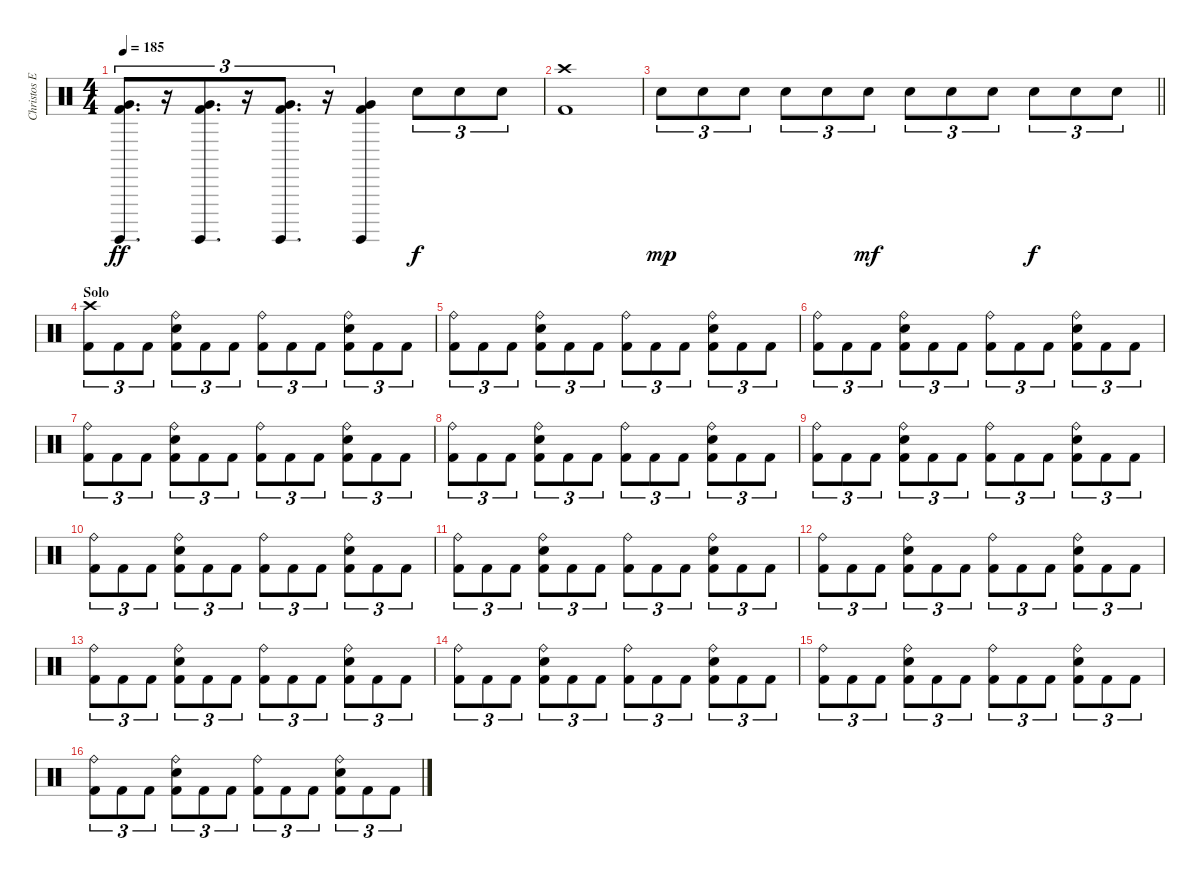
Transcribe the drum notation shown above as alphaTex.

\track ("Christos Ephitimiadis (drums)" "Christos E") {instrument percussion}
\staff {score}
\articulation defaults
\ts (4 4)
\tempo 185
\clef neutral
\ks c
("Surdo (hit)" "Very Low Tom (hit)" "Kick (hit) 2").8{d tu (3 2) dy ff} r.16{tu (3 2)} ("Surdo (hit)" "Very Low Tom (hit)" "Kick (hit) 2").8{d tu (3 2)} r.16{tu (3 2)} ("Surdo (hit)" "Very Low Tom (hit)" "Kick (hit) 2").8{d tu (3 2)} r.16{tu (3 2)} ("Surdo (hit)" "Very Low Tom (hit)" "Kick (hit) 2").4 "Snare (hit) 2".8{tu (3 2) dy f} "Snare (hit) 2".8{tu (3 2)} "Snare (hit) 2".8{tu (3 2)} |
("Crash high (hit)" "Kick (hit) 2").1 |
\barLineRight lightlight "Snare (hit) 2".8{tu (3 2) dy mp} "Snare (hit) 2".8{tu (3 2)} "Snare (hit) 2".8{tu (3 2)} "Snare (hit) 2".8{tu (3 2)} "Snare (hit) 2".8{tu (3 2)} "Snare (hit) 2".8{tu (3 2) dy mf} "Snare (hit) 2".8{tu (3 2)} "Snare (hit) 2".8{tu (3 2)} "Snare (hit) 2".8{tu (3 2)} "Snare (hit) 2".8{tu (3 2) dy f} "Snare (hit) 2".8{tu (3 2)} "Snare (hit) 2".8{tu (3 2)}
|
\section ("" "Solo")
("Crash high (hit)" "Kick (hit) 2").8{tu (3 2)} "Kick (hit) 2".8{tu (3 2)} "Kick (hit) 2".8{tu (3 2)} ("Ride (bell)" "Snare (hit) 2" "Kick (hit) 2").8{tu (3 2)} "Kick (hit) 2".8{tu (3 2)} "Kick (hit) 2".8{tu (3 2)} ("Ride (bell)" "Kick (hit) 2").8{tu (3 2)} "Kick (hit) 2".8{tu (3 2)} "Kick (hit) 2".8{tu (3 2)} ("Ride (bell)" "Snare (hit) 2" "Kick (hit) 2").8{tu (3 2)} "Kick (hit) 2".8{tu (3 2)} "Kick (hit) 2".8{tu (3 2)} |
("Ride (bell)" "Kick (hit) 2").8{tu (3 2)} "Kick (hit) 2".8{tu (3 2)} "Kick (hit) 2".8{tu (3 2)} ("Ride (bell)" "Snare (hit) 2" "Kick (hit) 2").8{tu (3 2)} "Kick (hit) 2".8{tu (3 2)} "Kick (hit) 2".8{tu (3 2)} ("Ride (bell)" "Kick (hit) 2").8{tu (3 2)} "Kick (hit) 2".8{tu (3 2)} "Kick (hit) 2".8{tu (3 2)} ("Ride (bell)" "Snare (hit) 2" "Kick (hit) 2").8{tu (3 2)} "Kick (hit) 2".8{tu (3 2)} "Kick (hit) 2".8{tu (3 2)} |
("Ride (bell)" "Kick (hit) 2").8{tu (3 2)} "Kick (hit) 2".8{tu (3 2)} "Kick (hit) 2".8{tu (3 2)} ("Ride (bell)" "Snare (hit) 2" "Kick (hit) 2").8{tu (3 2)} "Kick (hit) 2".8{tu (3 2)} "Kick (hit) 2".8{tu (3 2)} ("Ride (bell)" "Kick (hit) 2").8{tu (3 2)} "Kick (hit) 2".8{tu (3 2)} "Kick (hit) 2".8{tu (3 2)} ("Ride (bell)" "Snare (hit) 2" "Kick (hit) 2").8{tu (3 2)} "Kick (hit) 2".8{tu (3 2)} "Kick (hit) 2".8{tu (3 2)} |
("Ride (bell)" "Kick (hit) 2").8{tu (3 2)} "Kick (hit) 2".8{tu (3 2)} "Kick (hit) 2".8{tu (3 2)} ("Ride (bell)" "Snare (hit) 2" "Kick (hit) 2").8{tu (3 2)} "Kick (hit) 2".8{tu (3 2)} "Kick (hit) 2".8{tu (3 2)} ("Ride (bell)" "Kick (hit) 2").8{tu (3 2)} "Kick (hit) 2".8{tu (3 2)} "Kick (hit) 2".8{tu (3 2)} ("Ride (bell)" "Snare (hit) 2" "Kick (hit) 2").8{tu (3 2)} "Kick (hit) 2".8{tu (3 2)} "Kick (hit) 2".8{tu (3 2)} |
("Ride (bell)" "Kick (hit) 2").8{tu (3 2)} "Kick (hit) 2".8{tu (3 2)} "Kick (hit) 2".8{tu (3 2)} ("Ride (bell)" "Snare (hit) 2" "Kick (hit) 2").8{tu (3 2)} "Kick (hit) 2".8{tu (3 2)} "Kick (hit) 2".8{tu (3 2)} ("Ride (bell)" "Kick (hit) 2").8{tu (3 2)} "Kick (hit) 2".8{tu (3 2)} "Kick (hit) 2".8{tu (3 2)} ("Ride (bell)" "Snare (hit) 2" "Kick (hit) 2").8{tu (3 2)} "Kick (hit) 2".8{tu (3 2)} "Kick (hit) 2".8{tu (3 2)} |
("Ride (bell)" "Kick (hit) 2").8{tu (3 2)} "Kick (hit) 2".8{tu (3 2)} "Kick (hit) 2".8{tu (3 2)} ("Ride (bell)" "Snare (hit) 2" "Kick (hit) 2").8{tu (3 2)} "Kick (hit) 2".8{tu (3 2)} "Kick (hit) 2".8{tu (3 2)} ("Ride (bell)" "Kick (hit) 2").8{tu (3 2)} "Kick (hit) 2".8{tu (3 2)} "Kick (hit) 2".8{tu (3 2)} ("Ride (bell)" "Snare (hit) 2" "Kick (hit) 2").8{tu (3 2)} "Kick (hit) 2".8{tu (3 2)} "Kick (hit) 2".8{tu (3 2)} |
("Ride (bell)" "Kick (hit) 2").8{tu (3 2)} "Kick (hit) 2".8{tu (3 2)} "Kick (hit) 2".8{tu (3 2)} ("Ride (bell)" "Snare (hit) 2" "Kick (hit) 2").8{tu (3 2)} "Kick (hit) 2".8{tu (3 2)} "Kick (hit) 2".8{tu (3 2)} ("Ride (bell)" "Kick (hit) 2").8{tu (3 2)} "Kick (hit) 2".8{tu (3 2)} "Kick (hit) 2".8{tu (3 2)} ("Ride (bell)" "Snare (hit) 2" "Kick (hit) 2").8{tu (3 2)} "Kick (hit) 2".8{tu (3 2)} "Kick (hit) 2".8{tu (3 2)} |
("Ride (bell)" "Kick (hit) 2").8{tu (3 2)} "Kick (hit) 2".8{tu (3 2)} "Kick (hit) 2".8{tu (3 2)} ("Ride (bell)" "Snare (hit) 2" "Kick (hit) 2").8{tu (3 2)} "Kick (hit) 2".8{tu (3 2)} "Kick (hit) 2".8{tu (3 2)} ("Ride (bell)" "Kick (hit) 2").8{tu (3 2)} "Kick (hit) 2".8{tu (3 2)} "Kick (hit) 2".8{tu (3 2)} ("Ride (bell)" "Snare (hit) 2" "Kick (hit) 2").8{tu (3 2)} "Kick (hit) 2".8{tu (3 2)} "Kick (hit) 2".8{tu (3 2)} |
("Ride (bell)" "Kick (hit) 2").8{tu (3 2)} "Kick (hit) 2".8{tu (3 2)} "Kick (hit) 2".8{tu (3 2)} ("Ride (bell)" "Snare (hit) 2" "Kick (hit) 2").8{tu (3 2)} "Kick (hit) 2".8{tu (3 2)} "Kick (hit) 2".8{tu (3 2)} ("Ride (bell)" "Kick (hit) 2").8{tu (3 2)} "Kick (hit) 2".8{tu (3 2)} "Kick (hit) 2".8{tu (3 2)} ("Ride (bell)" "Snare (hit) 2" "Kick (hit) 2").8{tu (3 2)} "Kick (hit) 2".8{tu (3 2)} "Kick (hit) 2".8{tu (3 2)} |
("Ride (bell)" "Kick (hit) 2").8{tu (3 2)} "Kick (hit) 2".8{tu (3 2)} "Kick (hit) 2".8{tu (3 2)} ("Ride (bell)" "Snare (hit) 2" "Kick (hit) 2").8{tu (3 2)} "Kick (hit) 2".8{tu (3 2)} "Kick (hit) 2".8{tu (3 2)} ("Ride (bell)" "Kick (hit) 2").8{tu (3 2)} "Kick (hit) 2".8{tu (3 2)} "Kick (hit) 2".8{tu (3 2)} ("Ride (bell)" "Snare (hit) 2" "Kick (hit) 2").8{tu (3 2)} "Kick (hit) 2".8{tu (3 2)} "Kick (hit) 2".8{tu (3 2)} |
("Ride (bell)" "Kick (hit) 2").8{tu (3 2)} "Kick (hit) 2".8{tu (3 2)} "Kick (hit) 2".8{tu (3 2)} ("Ride (bell)" "Snare (hit) 2" "Kick (hit) 2").8{tu (3 2)} "Kick (hit) 2".8{tu (3 2)} "Kick (hit) 2".8{tu (3 2)} ("Ride (bell)" "Kick (hit) 2").8{tu (3 2)} "Kick (hit) 2".8{tu (3 2)} "Kick (hit) 2".8{tu (3 2)} ("Ride (bell)" "Snare (hit) 2" "Kick (hit) 2").8{tu (3 2)} "Kick (hit) 2".8{tu (3 2)} "Kick (hit) 2".8{tu (3 2)} |
("Ride (bell)" "Kick (hit) 2").8{tu (3 2)} "Kick (hit) 2".8{tu (3 2)} "Kick (hit) 2".8{tu (3 2)} ("Ride (bell)" "Snare (hit) 2" "Kick (hit) 2").8{tu (3 2)} "Kick (hit) 2".8{tu (3 2)} "Kick (hit) 2".8{tu (3 2)} ("Ride (bell)" "Kick (hit) 2").8{tu (3 2)} "Kick (hit) 2".8{tu (3 2)} "Kick (hit) 2".8{tu (3 2)} ("Ride (bell)" "Snare (hit) 2" "Kick (hit) 2").8{tu (3 2)} "Kick (hit) 2".8{tu (3 2)} "Kick (hit) 2".8{tu (3 2)} |
("Ride (bell)" "Kick (hit) 2").8{tu (3 2)} "Kick (hit) 2".8{tu (3 2)} "Kick (hit) 2".8{tu (3 2)} ("Ride (bell)" "Snare (hit) 2" "Kick (hit) 2").8{tu (3 2)} "Kick (hit) 2".8{tu (3 2)} "Kick (hit) 2".8{tu (3 2)} ("Ride (bell)" "Kick (hit) 2").8{tu (3 2)} "Kick (hit) 2".8{tu (3 2)} "Kick (hit) 2".8{tu (3 2)} ("Ride (bell)" "Snare (hit) 2" "Kick (hit) 2").8{tu (3 2)} "Kick (hit) 2".8{tu (3 2)} "Kick (hit) 2".8{tu (3 2)}
